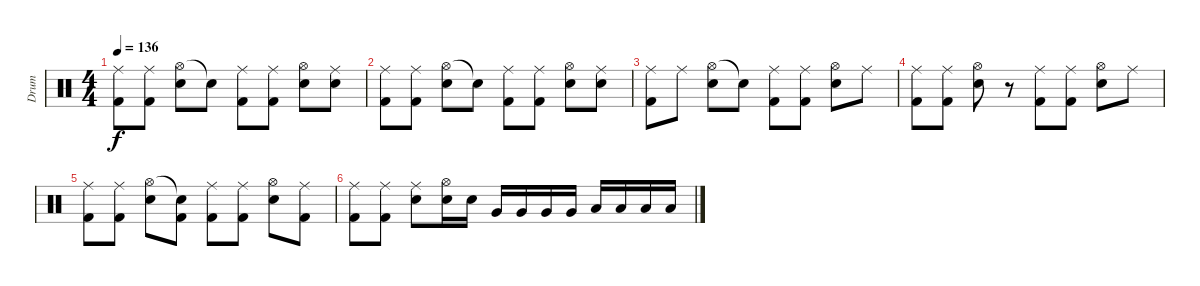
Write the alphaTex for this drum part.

\track ("Drum" "Drum") {instrument percussion}
\staff {score}
\articulation defaults
\ts (4 4)
\tempo 136
\clef neutral
\ks c
("Ride (middle)" "Kick (hit) 2").8{dy f} ("Ride (middle)" "Kick (hit) 2").8 ("Hi-Hat (open)" "Electric Snare (hit)").8 "Snare (hit)"{t}.8 ("Ride (middle)" "Kick (hit) 2").8 ("Ride (middle)" "Kick (hit) 2").8 ("Hi-Hat (open)" "Electric Snare (hit)").8 ("Ride (middle)" "Electric Snare (hit)").8 |
("Ride (middle)" "Kick (hit) 2").8 ("Ride (middle)" "Kick (hit) 2").8 ("Hi-Hat (open)" "Electric Snare (hit)").8 "Snare (hit)"{t}.8 ("Ride (middle)" "Kick (hit) 2").8 ("Ride (middle)" "Kick (hit) 2").8 ("Hi-Hat (open)" "Electric Snare (hit)").8 ("Ride (middle)" "Electric Snare (hit)").8 |
("Ride (middle)" "Kick (hit) 2").8 "Ride (middle)".8 ("Hi-Hat (open)" "Electric Snare (hit)").8 "Snare (hit)"{t}.8 ("Ride (middle)" "Kick (hit) 2").8 ("Ride (middle)" "Kick (hit) 2").8 ("Hi-Hat (open)" "Electric Snare (hit)").8 "Ride (middle)".8 |
("Ride (middle)" "Kick (hit) 2").8 ("Ride (middle)" "Kick (hit) 2").8 ("Hi-Hat (open)" "Electric Snare (hit)").8 r.8 ("Ride (middle)" "Kick (hit) 2").8 ("Ride (middle)" "Kick (hit) 2").8 ("Hi-Hat (open)" "Electric Snare (hit)").8 "Ride (middle)".8 |
("Ride (middle)" "Kick (hit) 2").8 ("Ride (middle)" "Kick (hit) 2").8 ("Hi-Hat (open)" "Electric Snare (hit)").8 ("Snare (hit)"{t} "Kick (hit) 2").8 ("Ride (middle)" "Kick (hit) 2").8 ("Ride (middle)" "Kick (hit) 2").8 ("Hi-Hat (open)" "Electric Snare (hit)").8 ("Ride (middle)" "Kick (hit) 2").8 |
("Ride (middle)" "Kick (hit) 2").8 ("Ride (middle)" "Kick (hit) 2").8 ("Ride (middle)" "Electric Snare (hit)").8 ("Hi-Hat (open)" "Electric Snare (hit)").16 "Electric Snare (hit)".16 "Very Low Tom (hit)".16 "Very Low Tom (hit)".16 "Very Low Tom (hit)".16 "Very Low Tom (hit)".16 "Low Tom (hit)".16 "Low Tom (hit)".16 "Low Tom (hit)".16 "Low Tom (hit)".16
